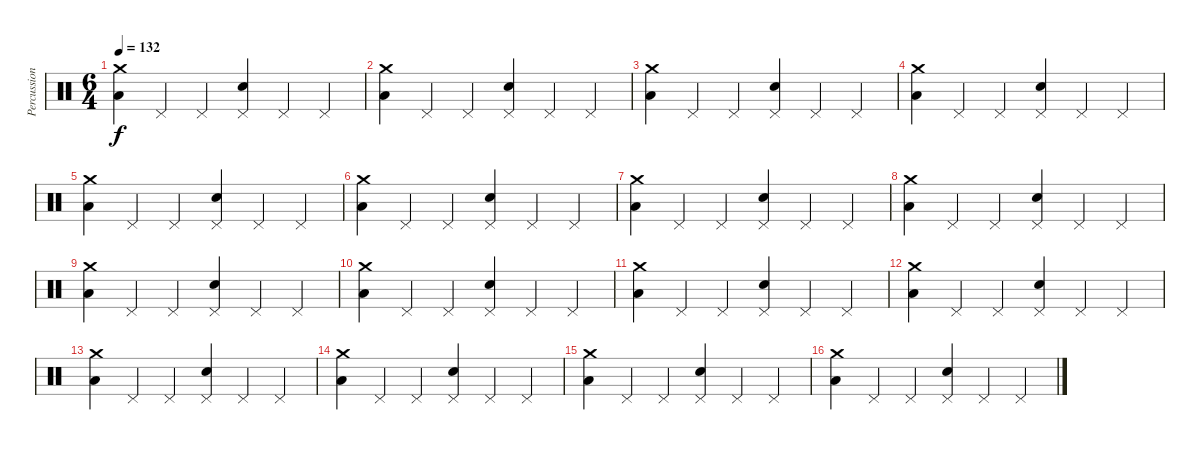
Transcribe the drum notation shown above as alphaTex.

\track ("Percussion" "Percussion") {instrument percussion}
\staff {score}
\articulation defaults
\ts (6 4)
\tempo 132
\clef neutral
\ks c
("Crash medium (hit)" "Low Floor Tom (hit)").4{dy f} "Pedal Hi-Hat (hit)".4 "Pedal Hi-Hat (hit)".4 ("Pedal Hi-Hat (hit)" "Snare (hit) 2").4 "Pedal Hi-Hat (hit)".4 "Pedal Hi-Hat (hit)".4 |
("Crash medium (hit)" "Low Floor Tom (hit)").4 "Pedal Hi-Hat (hit)".4 "Pedal Hi-Hat (hit)".4 ("Pedal Hi-Hat (hit)" "Snare (hit) 2").4 "Pedal Hi-Hat (hit)".4 "Pedal Hi-Hat (hit)".4 |
("Crash medium (hit)" "Low Floor Tom (hit)").4 "Pedal Hi-Hat (hit)".4 "Pedal Hi-Hat (hit)".4 ("Pedal Hi-Hat (hit)" "Snare (hit) 2").4 "Pedal Hi-Hat (hit)".4 "Pedal Hi-Hat (hit)".4 |
("Crash medium (hit)" "Low Floor Tom (hit)").4 "Pedal Hi-Hat (hit)".4 "Pedal Hi-Hat (hit)".4 ("Pedal Hi-Hat (hit)" "Snare (hit) 2").4 "Pedal Hi-Hat (hit)".4 "Pedal Hi-Hat (hit)".4 |
("Crash medium (hit)" "Low Floor Tom (hit)").4 "Pedal Hi-Hat (hit)".4 "Pedal Hi-Hat (hit)".4 ("Pedal Hi-Hat (hit)" "Snare (hit) 2").4 "Pedal Hi-Hat (hit)".4 "Pedal Hi-Hat (hit)".4 |
("Crash medium (hit)" "Low Floor Tom (hit)").4 "Pedal Hi-Hat (hit)".4 "Pedal Hi-Hat (hit)".4 ("Pedal Hi-Hat (hit)" "Snare (hit) 2").4 "Pedal Hi-Hat (hit)".4 "Pedal Hi-Hat (hit)".4 |
("Crash medium (hit)" "Low Floor Tom (hit)").4 "Pedal Hi-Hat (hit)".4 "Pedal Hi-Hat (hit)".4 ("Pedal Hi-Hat (hit)" "Snare (hit) 2").4 "Pedal Hi-Hat (hit)".4 "Pedal Hi-Hat (hit)".4 |
("Crash medium (hit)" "Low Floor Tom (hit)").4 "Pedal Hi-Hat (hit)".4 "Pedal Hi-Hat (hit)".4 ("Pedal Hi-Hat (hit)" "Snare (hit) 2").4 "Pedal Hi-Hat (hit)".4 "Pedal Hi-Hat (hit)".4 |
("Crash medium (hit)" "Low Floor Tom (hit)").4 "Pedal Hi-Hat (hit)".4 "Pedal Hi-Hat (hit)".4 ("Pedal Hi-Hat (hit)" "Snare (hit) 2").4 "Pedal Hi-Hat (hit)".4 "Pedal Hi-Hat (hit)".4 |
("Crash medium (hit)" "Low Floor Tom (hit)").4 "Pedal Hi-Hat (hit)".4 "Pedal Hi-Hat (hit)".4 ("Pedal Hi-Hat (hit)" "Snare (hit) 2").4 "Pedal Hi-Hat (hit)".4 "Pedal Hi-Hat (hit)".4 |
("Crash medium (hit)" "Low Floor Tom (hit)").4 "Pedal Hi-Hat (hit)".4 "Pedal Hi-Hat (hit)".4 ("Pedal Hi-Hat (hit)" "Snare (hit) 2").4 "Pedal Hi-Hat (hit)".4 "Pedal Hi-Hat (hit)".4 |
("Crash medium (hit)" "Low Floor Tom (hit)").4 "Pedal Hi-Hat (hit)".4 "Pedal Hi-Hat (hit)".4 ("Pedal Hi-Hat (hit)" "Snare (hit) 2").4 "Pedal Hi-Hat (hit)".4 "Pedal Hi-Hat (hit)".4 |
("Crash medium (hit)" "Low Floor Tom (hit)").4 "Pedal Hi-Hat (hit)".4 "Pedal Hi-Hat (hit)".4 ("Pedal Hi-Hat (hit)" "Snare (hit) 2").4 "Pedal Hi-Hat (hit)".4 "Pedal Hi-Hat (hit)".4 |
("Crash medium (hit)" "Low Floor Tom (hit)").4 "Pedal Hi-Hat (hit)".4 "Pedal Hi-Hat (hit)".4 ("Pedal Hi-Hat (hit)" "Snare (hit) 2").4 "Pedal Hi-Hat (hit)".4 "Pedal Hi-Hat (hit)".4 |
("Crash medium (hit)" "Low Floor Tom (hit)").4 "Pedal Hi-Hat (hit)".4 "Pedal Hi-Hat (hit)".4 ("Pedal Hi-Hat (hit)" "Snare (hit) 2").4 "Pedal Hi-Hat (hit)".4 "Pedal Hi-Hat (hit)".4 |
("Crash medium (hit)" "Low Floor Tom (hit)").4 "Pedal Hi-Hat (hit)".4 "Pedal Hi-Hat (hit)".4 ("Pedal Hi-Hat (hit)" "Snare (hit) 2").4 "Pedal Hi-Hat (hit)".4 "Pedal Hi-Hat (hit)".4
